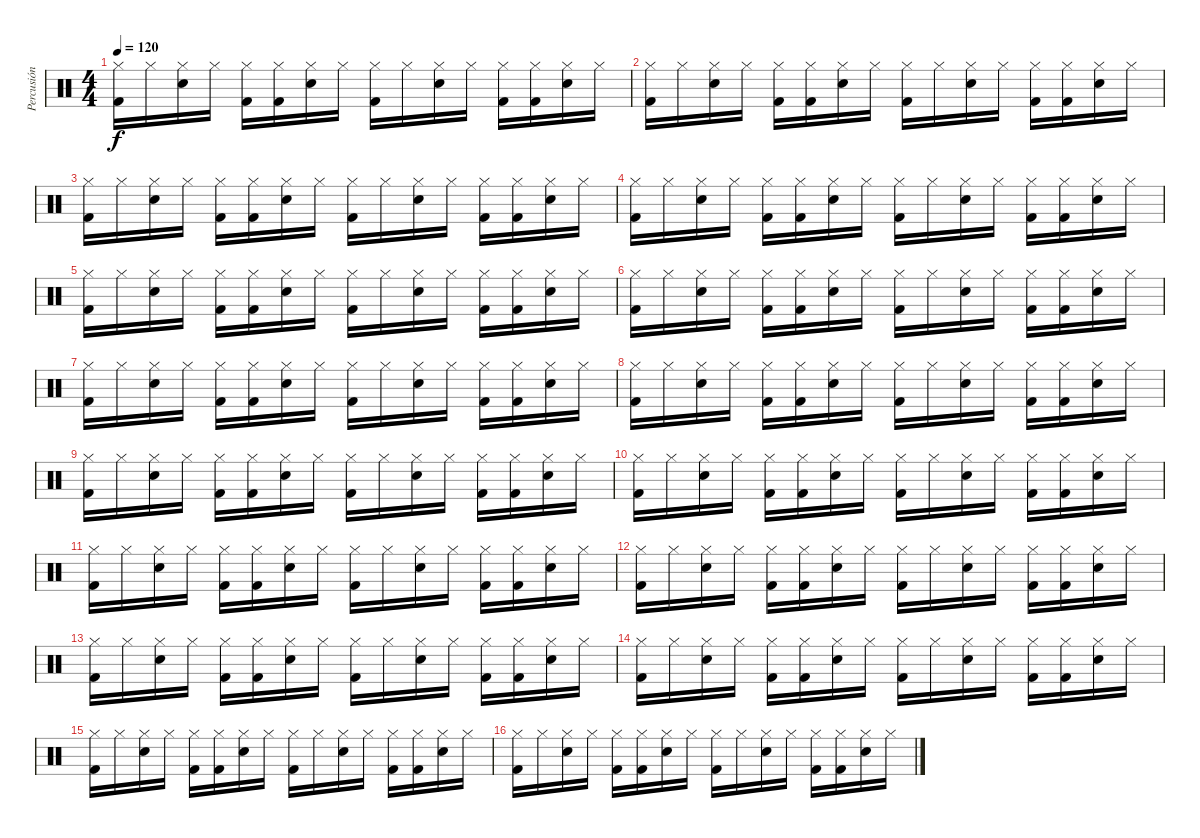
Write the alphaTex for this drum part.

\track ("Percusión" "Percusión") {instrument percussion}
\staff {score}
\articulation defaults
\ts (4 4)
\tempo 120
\clef neutral
\ks c
("Kick (hit) 2" "Hi-Hat (closed)").16{dy f} "Hi-Hat (closed)".16 ("Electric Snare (hit)" "Hi-Hat (closed)").16 "Hi-Hat (closed)".16 ("Kick (hit) 2" "Hi-Hat (closed)").16 ("Kick (hit) 2" "Hi-Hat (closed)").16 ("Electric Snare (hit)" "Hi-Hat (closed)").16 "Hi-Hat (closed)".16 ("Kick (hit) 2" "Hi-Hat (closed)").16 "Hi-Hat (closed)".16 ("Electric Snare (hit)" "Hi-Hat (closed)").16 "Hi-Hat (closed)".16 ("Kick (hit) 2" "Hi-Hat (closed)").16 ("Kick (hit) 2" "Hi-Hat (closed)").16 ("Electric Snare (hit)" "Hi-Hat (closed)").16 "Hi-Hat (closed)".16 |
("Kick (hit) 2" "Hi-Hat (closed)").16 "Hi-Hat (closed)".16 ("Electric Snare (hit)" "Hi-Hat (closed)").16 "Hi-Hat (closed)".16 ("Kick (hit) 2" "Hi-Hat (closed)").16 ("Kick (hit) 2" "Hi-Hat (closed)").16 ("Electric Snare (hit)" "Hi-Hat (closed)").16 "Hi-Hat (closed)".16 ("Kick (hit) 2" "Hi-Hat (closed)").16 "Hi-Hat (closed)".16 ("Electric Snare (hit)" "Hi-Hat (closed)").16 "Hi-Hat (closed)".16 ("Kick (hit) 2" "Hi-Hat (closed)").16 ("Kick (hit) 2" "Hi-Hat (closed)").16 ("Electric Snare (hit)" "Hi-Hat (closed)").16 "Hi-Hat (closed)".16 |
("Kick (hit) 2" "Hi-Hat (closed)").16 "Hi-Hat (closed)".16 ("Electric Snare (hit)" "Hi-Hat (closed)").16 "Hi-Hat (closed)".16 ("Kick (hit) 2" "Hi-Hat (closed)").16 ("Kick (hit) 2" "Hi-Hat (closed)").16 ("Electric Snare (hit)" "Hi-Hat (closed)").16 "Hi-Hat (closed)".16 ("Kick (hit) 2" "Hi-Hat (closed)").16 "Hi-Hat (closed)".16 ("Electric Snare (hit)" "Hi-Hat (closed)").16 "Hi-Hat (closed)".16 ("Kick (hit) 2" "Hi-Hat (closed)").16 ("Kick (hit) 2" "Hi-Hat (closed)").16 ("Electric Snare (hit)" "Hi-Hat (closed)").16 "Hi-Hat (closed)".16 |
("Kick (hit) 2" "Hi-Hat (closed)").16 "Hi-Hat (closed)".16 ("Electric Snare (hit)" "Hi-Hat (closed)").16 "Hi-Hat (closed)".16 ("Kick (hit) 2" "Hi-Hat (closed)").16 ("Kick (hit) 2" "Hi-Hat (closed)").16 ("Electric Snare (hit)" "Hi-Hat (closed)").16 "Hi-Hat (closed)".16 ("Kick (hit) 2" "Hi-Hat (closed)").16 "Hi-Hat (closed)".16 ("Electric Snare (hit)" "Hi-Hat (closed)").16 "Hi-Hat (closed)".16 ("Kick (hit) 2" "Hi-Hat (closed)").16 ("Kick (hit) 2" "Hi-Hat (closed)").16 ("Electric Snare (hit)" "Hi-Hat (closed)").16 "Hi-Hat (closed)".16 |
("Kick (hit) 2" "Hi-Hat (closed)").16 "Hi-Hat (closed)".16 ("Electric Snare (hit)" "Hi-Hat (closed)").16 "Hi-Hat (closed)".16 ("Kick (hit) 2" "Hi-Hat (closed)").16 ("Kick (hit) 2" "Hi-Hat (closed)").16 ("Electric Snare (hit)" "Hi-Hat (closed)").16 "Hi-Hat (closed)".16 ("Kick (hit) 2" "Hi-Hat (closed)").16 "Hi-Hat (closed)".16 ("Electric Snare (hit)" "Hi-Hat (closed)").16 "Hi-Hat (closed)".16 ("Kick (hit) 2" "Hi-Hat (closed)").16 ("Kick (hit) 2" "Hi-Hat (closed)").16 ("Electric Snare (hit)" "Hi-Hat (closed)").16 "Hi-Hat (closed)".16 |
("Kick (hit) 2" "Hi-Hat (closed)").16 "Hi-Hat (closed)".16 ("Electric Snare (hit)" "Hi-Hat (closed)").16 "Hi-Hat (closed)".16 ("Kick (hit) 2" "Hi-Hat (closed)").16 ("Kick (hit) 2" "Hi-Hat (closed)").16 ("Electric Snare (hit)" "Hi-Hat (closed)").16 "Hi-Hat (closed)".16 ("Kick (hit) 2" "Hi-Hat (closed)").16 "Hi-Hat (closed)".16 ("Electric Snare (hit)" "Hi-Hat (closed)").16 "Hi-Hat (closed)".16 ("Kick (hit) 2" "Hi-Hat (closed)").16 ("Kick (hit) 2" "Hi-Hat (closed)").16 ("Electric Snare (hit)" "Hi-Hat (closed)").16 "Hi-Hat (closed)".16 |
("Kick (hit) 2" "Hi-Hat (closed)").16 "Hi-Hat (closed)".16 ("Electric Snare (hit)" "Hi-Hat (closed)").16 "Hi-Hat (closed)".16 ("Kick (hit) 2" "Hi-Hat (closed)").16 ("Kick (hit) 2" "Hi-Hat (closed)").16 ("Electric Snare (hit)" "Hi-Hat (closed)").16 "Hi-Hat (closed)".16 ("Kick (hit) 2" "Hi-Hat (closed)").16 "Hi-Hat (closed)".16 ("Electric Snare (hit)" "Hi-Hat (closed)").16 "Hi-Hat (closed)".16 ("Kick (hit) 2" "Hi-Hat (closed)").16 ("Kick (hit) 2" "Hi-Hat (closed)").16 ("Electric Snare (hit)" "Hi-Hat (closed)").16 "Hi-Hat (closed)".16 |
("Kick (hit) 2" "Hi-Hat (closed)").16 "Hi-Hat (closed)".16 ("Electric Snare (hit)" "Hi-Hat (closed)").16 "Hi-Hat (closed)".16 ("Kick (hit) 2" "Hi-Hat (closed)").16 ("Kick (hit) 2" "Hi-Hat (closed)").16 ("Electric Snare (hit)" "Hi-Hat (closed)").16 "Hi-Hat (closed)".16 ("Kick (hit) 2" "Hi-Hat (closed)").16 "Hi-Hat (closed)".16 ("Electric Snare (hit)" "Hi-Hat (closed)").16 "Hi-Hat (closed)".16 ("Kick (hit) 2" "Hi-Hat (closed)").16 ("Kick (hit) 2" "Hi-Hat (closed)").16 ("Electric Snare (hit)" "Hi-Hat (closed)").16 "Hi-Hat (closed)".16 |
("Kick (hit) 2" "Hi-Hat (closed)").16 "Hi-Hat (closed)".16 ("Electric Snare (hit)" "Hi-Hat (closed)").16 "Hi-Hat (closed)".16 ("Kick (hit) 2" "Hi-Hat (closed)").16 ("Kick (hit) 2" "Hi-Hat (closed)").16 ("Electric Snare (hit)" "Hi-Hat (closed)").16 "Hi-Hat (closed)".16 ("Kick (hit) 2" "Hi-Hat (closed)").16 "Hi-Hat (closed)".16 ("Electric Snare (hit)" "Hi-Hat (closed)").16 "Hi-Hat (closed)".16 ("Kick (hit) 2" "Hi-Hat (closed)").16 ("Kick (hit) 2" "Hi-Hat (closed)").16 ("Electric Snare (hit)" "Hi-Hat (closed)").16 "Hi-Hat (closed)".16 |
("Kick (hit) 2" "Hi-Hat (closed)").16 "Hi-Hat (closed)".16 ("Electric Snare (hit)" "Hi-Hat (closed)").16 "Hi-Hat (closed)".16 ("Kick (hit) 2" "Hi-Hat (closed)").16 ("Kick (hit) 2" "Hi-Hat (closed)").16 ("Electric Snare (hit)" "Hi-Hat (closed)").16 "Hi-Hat (closed)".16 ("Kick (hit) 2" "Hi-Hat (closed)").16 "Hi-Hat (closed)".16 ("Electric Snare (hit)" "Hi-Hat (closed)").16 "Hi-Hat (closed)".16 ("Kick (hit) 2" "Hi-Hat (closed)").16 ("Kick (hit) 2" "Hi-Hat (closed)").16 ("Electric Snare (hit)" "Hi-Hat (closed)").16 "Hi-Hat (closed)".16 |
("Kick (hit) 2" "Hi-Hat (closed)").16 "Hi-Hat (closed)".16 ("Electric Snare (hit)" "Hi-Hat (closed)").16 "Hi-Hat (closed)".16 ("Kick (hit) 2" "Hi-Hat (closed)").16 ("Kick (hit) 2" "Hi-Hat (closed)").16 ("Electric Snare (hit)" "Hi-Hat (closed)").16 "Hi-Hat (closed)".16 ("Kick (hit) 2" "Hi-Hat (closed)").16 "Hi-Hat (closed)".16 ("Electric Snare (hit)" "Hi-Hat (closed)").16 "Hi-Hat (closed)".16 ("Kick (hit) 2" "Hi-Hat (closed)").16 ("Kick (hit) 2" "Hi-Hat (closed)").16 ("Electric Snare (hit)" "Hi-Hat (closed)").16 "Hi-Hat (closed)".16 |
("Kick (hit) 2" "Hi-Hat (closed)").16 "Hi-Hat (closed)".16 ("Electric Snare (hit)" "Hi-Hat (closed)").16 "Hi-Hat (closed)".16 ("Kick (hit) 2" "Hi-Hat (closed)").16 ("Kick (hit) 2" "Hi-Hat (closed)").16 ("Electric Snare (hit)" "Hi-Hat (closed)").16 "Hi-Hat (closed)".16 ("Kick (hit) 2" "Hi-Hat (closed)").16 "Hi-Hat (closed)".16 ("Electric Snare (hit)" "Hi-Hat (closed)").16 "Hi-Hat (closed)".16 ("Kick (hit) 2" "Hi-Hat (closed)").16 ("Kick (hit) 2" "Hi-Hat (closed)").16 ("Electric Snare (hit)" "Hi-Hat (closed)").16 "Hi-Hat (closed)".16 |
("Kick (hit) 2" "Hi-Hat (closed)").16 "Hi-Hat (closed)".16 ("Electric Snare (hit)" "Hi-Hat (closed)").16 "Hi-Hat (closed)".16 ("Kick (hit) 2" "Hi-Hat (closed)").16 ("Kick (hit) 2" "Hi-Hat (closed)").16 ("Electric Snare (hit)" "Hi-Hat (closed)").16 "Hi-Hat (closed)".16 ("Kick (hit) 2" "Hi-Hat (closed)").16 "Hi-Hat (closed)".16 ("Electric Snare (hit)" "Hi-Hat (closed)").16 "Hi-Hat (closed)".16 ("Kick (hit) 2" "Hi-Hat (closed)").16 ("Kick (hit) 2" "Hi-Hat (closed)").16 ("Electric Snare (hit)" "Hi-Hat (closed)").16 "Hi-Hat (closed)".16 |
("Kick (hit) 2" "Hi-Hat (closed)").16 "Hi-Hat (closed)".16 ("Electric Snare (hit)" "Hi-Hat (closed)").16 "Hi-Hat (closed)".16 ("Kick (hit) 2" "Hi-Hat (closed)").16 ("Kick (hit) 2" "Hi-Hat (closed)").16 ("Electric Snare (hit)" "Hi-Hat (closed)").16 "Hi-Hat (closed)".16 ("Kick (hit) 2" "Hi-Hat (closed)").16 "Hi-Hat (closed)".16 ("Electric Snare (hit)" "Hi-Hat (closed)").16 "Hi-Hat (closed)".16 ("Kick (hit) 2" "Hi-Hat (closed)").16 ("Kick (hit) 2" "Hi-Hat (closed)").16 ("Electric Snare (hit)" "Hi-Hat (closed)").16 "Hi-Hat (closed)".16 |
("Kick (hit) 2" "Hi-Hat (closed)").16 "Hi-Hat (closed)".16 ("Electric Snare (hit)" "Hi-Hat (closed)").16 "Hi-Hat (closed)".16 ("Kick (hit) 2" "Hi-Hat (closed)").16 ("Kick (hit) 2" "Hi-Hat (closed)").16 ("Electric Snare (hit)" "Hi-Hat (closed)").16 "Hi-Hat (closed)".16 ("Kick (hit) 2" "Hi-Hat (closed)").16 "Hi-Hat (closed)".16 ("Electric Snare (hit)" "Hi-Hat (closed)").16 "Hi-Hat (closed)".16 ("Kick (hit) 2" "Hi-Hat (closed)").16 ("Kick (hit) 2" "Hi-Hat (closed)").16 ("Electric Snare (hit)" "Hi-Hat (closed)").16 "Hi-Hat (closed)".16 |
("Kick (hit) 2" "Hi-Hat (closed)").16 "Hi-Hat (closed)".16 ("Electric Snare (hit)" "Hi-Hat (closed)").16 "Hi-Hat (closed)".16 ("Kick (hit) 2" "Hi-Hat (closed)").16 ("Kick (hit) 2" "Hi-Hat (closed)").16 ("Electric Snare (hit)" "Hi-Hat (closed)").16 "Hi-Hat (closed)".16 ("Kick (hit) 2" "Hi-Hat (closed)").16 "Hi-Hat (closed)".16 ("Electric Snare (hit)" "Hi-Hat (closed)").16 "Hi-Hat (closed)".16 ("Kick (hit) 2" "Hi-Hat (closed)").16 ("Kick (hit) 2" "Hi-Hat (closed)").16 ("Electric Snare (hit)" "Hi-Hat (closed)").16 "Hi-Hat (closed)".16
